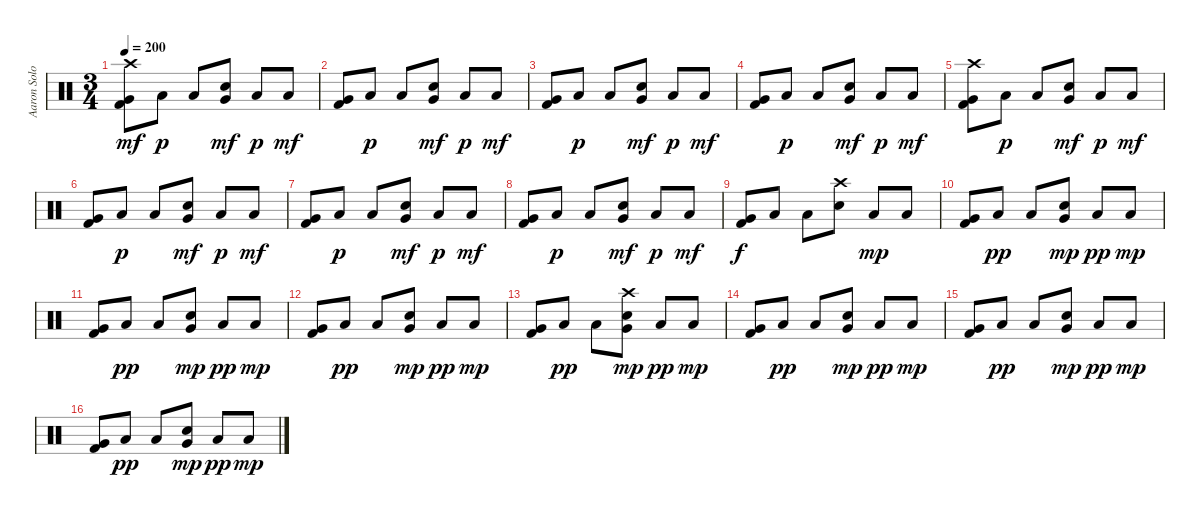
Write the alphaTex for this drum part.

\track ("Aaron Solowoniuk" "Aaron Solo") {instrument percussion}
\staff {score}
\articulation defaults
\ts (3 4)
\tempo 200
\clef neutral
\ks c
("Crash high (hit)" "Very Low Tom (hit)" "Kick (hit) 2").8{dy mf} "Low Floor Tom (hit)".8{dy p} "Low Floor Tom (hit)".8 ("Very Low Tom (hit)" "Snare (hit) 2").8{dy mf} "Low Floor Tom (hit)".8{dy p} "Low Floor Tom (hit)".8{dy mf} |
("Very Low Tom (hit)" "Kick (hit) 2").8 "Low Floor Tom (hit)".8{dy p} "Low Floor Tom (hit)".8 ("Very Low Tom (hit)" "Snare (hit) 2").8{dy mf} "Low Floor Tom (hit)".8{dy p} "Low Floor Tom (hit)".8{dy mf} |
("Very Low Tom (hit)" "Kick (hit) 2").8 "Low Floor Tom (hit)".8{dy p} "Low Floor Tom (hit)".8 ("Very Low Tom (hit)" "Snare (hit) 2").8{dy mf} "Low Floor Tom (hit)".8{dy p} "Low Floor Tom (hit)".8{dy mf} |
("Very Low Tom (hit)" "Kick (hit) 2").8 "Low Floor Tom (hit)".8{dy p} "Low Floor Tom (hit)".8 ("Very Low Tom (hit)" "Snare (hit) 2").8{dy mf} "Low Floor Tom (hit)".8{dy p} "Low Floor Tom (hit)".8{dy mf} |
("Crash high (hit)" "Very Low Tom (hit)" "Kick (hit) 2").8 "Low Floor Tom (hit)".8{dy p} "Low Floor Tom (hit)".8 ("Very Low Tom (hit)" "Snare (hit) 2").8{dy mf} "Low Floor Tom (hit)".8{dy p} "Low Floor Tom (hit)".8{dy mf} |
("Very Low Tom (hit)" "Kick (hit) 2").8 "Low Floor Tom (hit)".8{dy p} "Low Floor Tom (hit)".8 ("Very Low Tom (hit)" "Snare (hit) 2").8{dy mf} "Low Floor Tom (hit)".8{dy p} "Low Floor Tom (hit)".8{dy mf} |
("Very Low Tom (hit)" "Kick (hit) 2").8 "Low Floor Tom (hit)".8{dy p} "Low Floor Tom (hit)".8 ("Very Low Tom (hit)" "Snare (hit) 2").8{dy mf} "Low Floor Tom (hit)".8{dy p} "Low Floor Tom (hit)".8{dy mf} |
("Very Low Tom (hit)" "Kick (hit) 2").8 "Low Floor Tom (hit)".8{dy p} "Low Floor Tom (hit)".8 ("Very Low Tom (hit)" "Snare (hit) 2").8{dy mf} "Low Floor Tom (hit)".8{dy p} "Low Floor Tom (hit)".8{dy mf} |
("Very Low Tom (hit)" "Kick (hit) 2").8{dy f} "Low Floor Tom (hit)".8 "Low Floor Tom (hit)".8 ("Crash high (hit)" "Snare (hit) 2").8 "Low Floor Tom (hit)".8{dy mp} "Low Floor Tom (hit)".8 |
("Very Low Tom (hit)" "Kick (hit) 2").8 "Low Floor Tom (hit)".8{dy pp} "Low Floor Tom (hit)".8 ("Very Low Tom (hit)" "Snare (hit) 2").8{dy mp} "Low Floor Tom (hit)".8{dy pp} "Low Floor Tom (hit)".8{dy mp} |
("Very Low Tom (hit)" "Kick (hit) 2").8 "Low Floor Tom (hit)".8{dy pp} "Low Floor Tom (hit)".8 ("Very Low Tom (hit)" "Snare (hit) 2").8{dy mp} "Low Floor Tom (hit)".8{dy pp} "Low Floor Tom (hit)".8{dy mp} |
("Very Low Tom (hit)" "Kick (hit) 2").8 "Low Floor Tom (hit)".8{dy pp} "Low Floor Tom (hit)".8 ("Very Low Tom (hit)" "Snare (hit) 2").8{dy mp} "Low Floor Tom (hit)".8{dy pp} "Low Floor Tom (hit)".8{dy mp} |
("Very Low Tom (hit)" "Kick (hit) 2").8 "Low Floor Tom (hit)".8{dy pp} "Low Floor Tom (hit)".8 ("Crash high (hit)" "Very Low Tom (hit)" "Snare (hit) 2").8{dy mp} "Low Floor Tom (hit)".8{dy pp} "Low Floor Tom (hit)".8{dy mp} |
("Very Low Tom (hit)" "Kick (hit) 2").8 "Low Floor Tom (hit)".8{dy pp} "Low Floor Tom (hit)".8 ("Very Low Tom (hit)" "Snare (hit) 2").8{dy mp} "Low Floor Tom (hit)".8{dy pp} "Low Floor Tom (hit)".8{dy mp} |
("Very Low Tom (hit)" "Kick (hit) 2").8 "Low Floor Tom (hit)".8{dy pp} "Low Floor Tom (hit)".8 ("Very Low Tom (hit)" "Snare (hit) 2").8{dy mp} "Low Floor Tom (hit)".8{dy pp} "Low Floor Tom (hit)".8{dy mp} |
("Very Low Tom (hit)" "Kick (hit) 2").8 "Low Floor Tom (hit)".8{dy pp} "Low Floor Tom (hit)".8 ("Very Low Tom (hit)" "Snare (hit) 2").8{dy mp} "Low Floor Tom (hit)".8{dy pp} "Low Floor Tom (hit)".8{dy mp}
